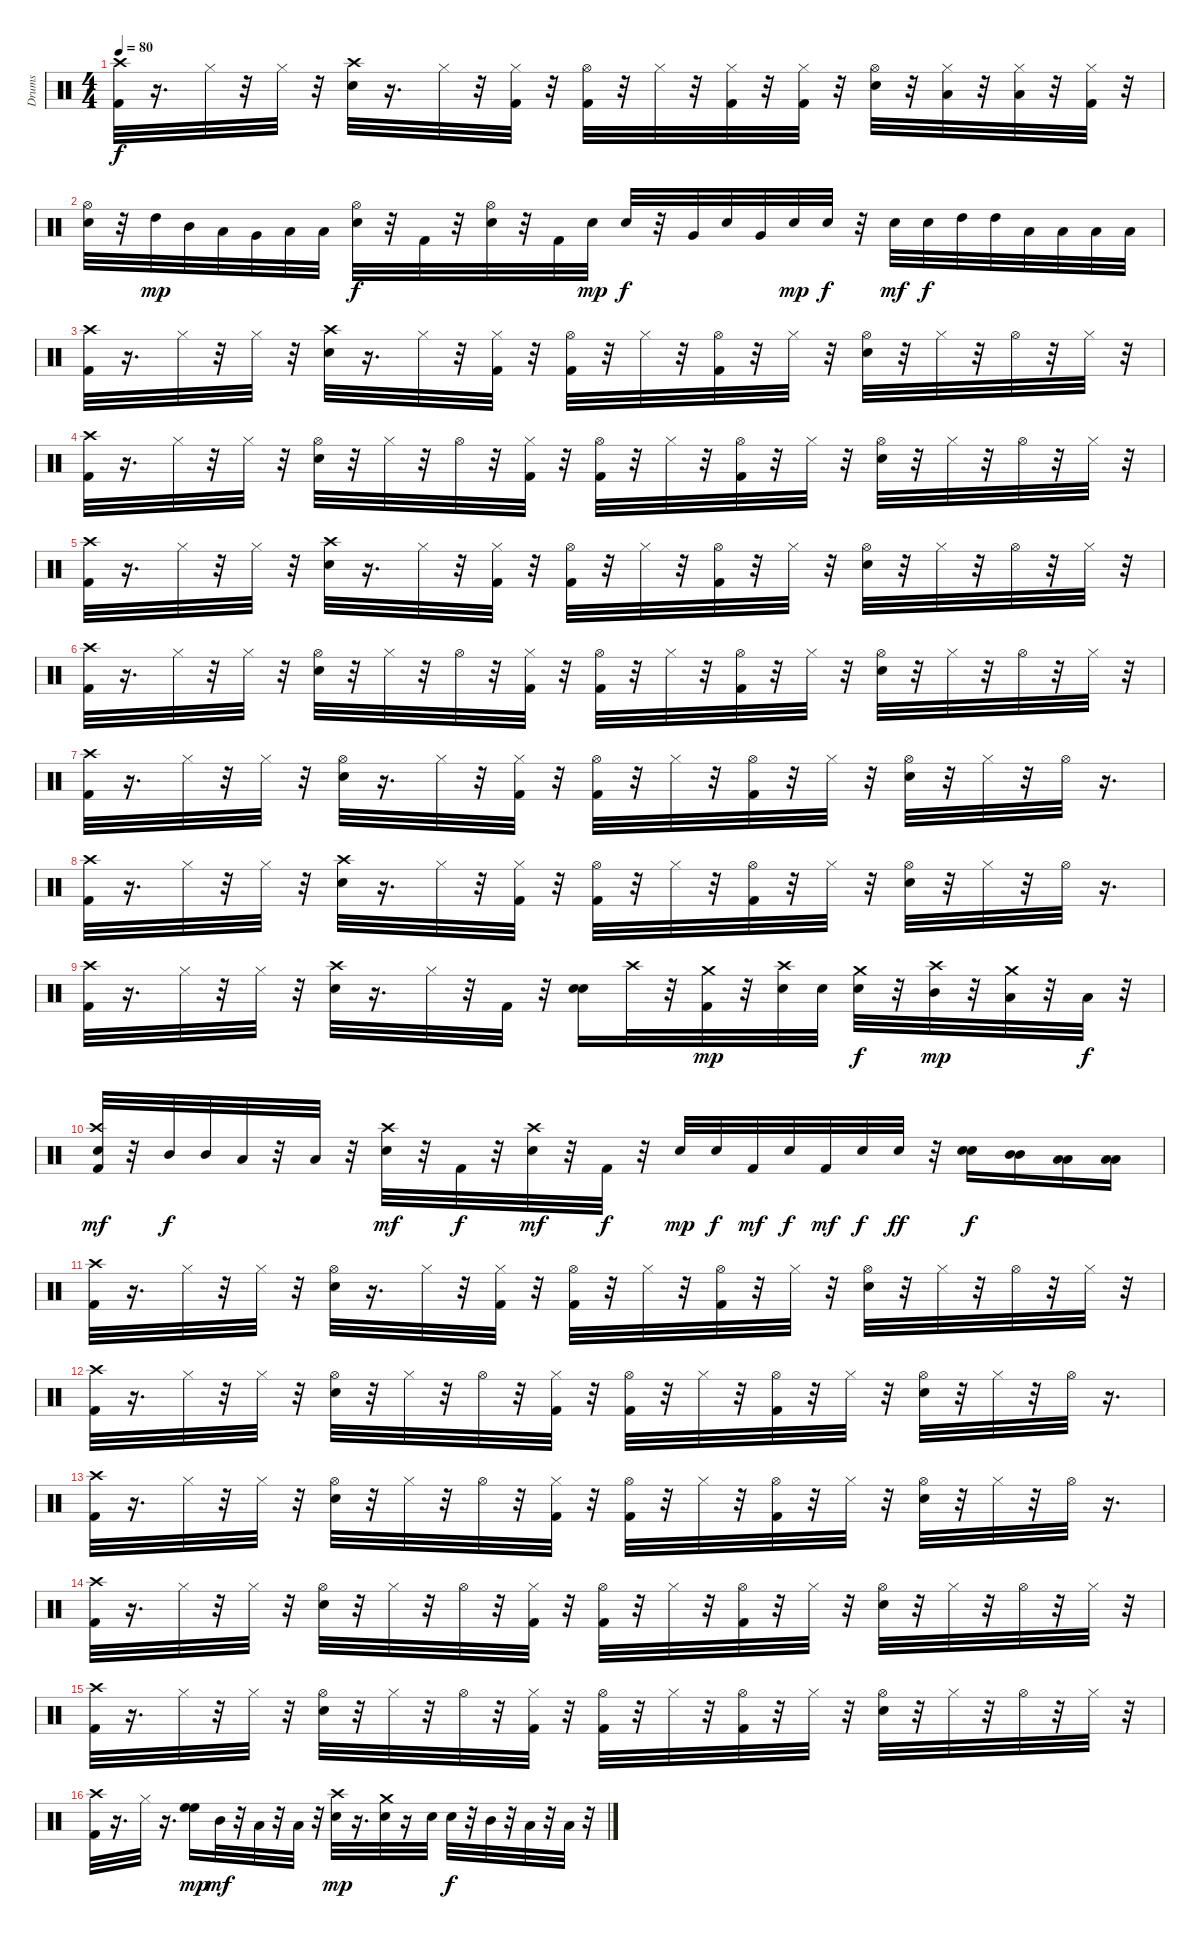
\track ("Drums" "Drums") {instrument percussion}
\staff {score}
\articulation defaults
\ts (4 4)
\tempo 80
\clef neutral
\ks c
("Kick (hit) 2" "Crash high (hit)").32{dy f} r.16{d} "Hi-Hat (closed)".32 r.32 "Hi-Hat (closed)".32 r.32 ("Snare (hit) 2" "Crash high (hit)").32 r.16{d} "Hi-Hat (closed)".32 r.32 ("Kick (hit) 2" "Hi-Hat (closed)").32 r.32 ("Kick (hit) 2" "Hi-Hat (open)").32 r.32 "Hi-Hat (closed)".32 r.32 ("Hi-Hat (closed)" "Kick (hit) 2").32 r.32 ("Kick (hit) 2" "Hi-Hat (closed)").32 r.32 ("Snare (hit) 2" "Hi-Hat (open)").32 r.32 ("Low Tom (hit)" "Hi-Hat (closed)").32 r.32 ("Low Floor Tom (hit)" "Hi-Hat (closed)").32 r.32 ("Kick (hit) 2" "Hi-Hat (closed)").32 r.32 |
("Hi-Hat (open)" "Snare (hit) 2").32 r.32 "High Tom (hit)".32{dy mp} "Mid Tom (hit)".32 "Low Tom (hit)".32 "Very Low Tom (hit)".32 "Low Floor Tom (hit)".32 "Low Floor Tom (hit)".32 ("Hi-Hat (open)" "Snare (hit) 2").32{dy f} r.32 "Kick (hit) 2".32 r.32 ("Hi-Hat (open)" "Snare (hit) 2").32 r.32 "Kick (hit) 2".32 "Snare (hit) 2".32{dy mp} "Snare (hit) 2".32{dy f} r.32 "Very Low Tom (hit)".32 "Snare (hit) 2".32 "Very Low Tom (hit)".32 "Snare (hit) 2".32{dy mp} "Snare (hit) 2".32{dy f} r.32 "Snare (hit) 2".32{dy mf} "Snare (hit) 2".32{dy f} "High Tom (hit)".32 "High Tom (hit)".32 "Low Tom (hit)".32 "Low Tom (hit)".32 "Low Floor Tom (hit)".32 "Low Floor Tom (hit)".32 |
("Kick (hit) 2" "Crash high (hit)").32 r.16{d} "Hi-Hat (closed)".32 r.32 "Hi-Hat (closed)".32 r.32 ("Snare (hit) 2" "Crash high (hit)").32 r.16{d} "Hi-Hat (closed)".32 r.32 ("Kick (hit) 2" "Hi-Hat (closed)").32 r.32 ("Kick (hit) 2" "Hi-Hat (open)").32 r.32 "Hi-Hat (closed)".32 r.32 ("Hi-Hat (open)" "Kick (hit) 2").32 r.32 "Hi-Hat (closed)".32 r.32 ("Snare (hit) 2" "Hi-Hat (open)").32 r.32 "Hi-Hat (closed)".32 r.32 "Hi-Hat (open)".32 r.32 "Hi-Hat (closed)".32 r.32 |
("Kick (hit) 2" "Crash high (hit)").32 r.16{d} "Hi-Hat (closed)".32 r.32 "Hi-Hat (closed)".32 r.32 ("Snare (hit) 2" "Hi-Hat (open)").32 r.32 "Hi-Hat (closed)".32 r.32 "Hi-Hat (open)".32 r.32 ("Kick (hit) 2" "Hi-Hat (closed)").32 r.32 ("Kick (hit) 2" "Hi-Hat (open)").32 r.32 "Hi-Hat (closed)".32 r.32 ("Hi-Hat (open)" "Kick (hit) 2").32 r.32 "Hi-Hat (closed)".32 r.32 ("Snare (hit) 2" "Hi-Hat (open)").32 r.32 "Hi-Hat (closed)".32 r.32 "Hi-Hat (open)".32 r.32 "Hi-Hat (closed)".32 r.32 |
("Kick (hit) 2" "Crash high (hit)").32 r.16{d} "Hi-Hat (closed)".32 r.32 "Hi-Hat (closed)".32 r.32 ("Snare (hit) 2" "Crash high (hit)").32 r.16{d} "Hi-Hat (closed)".32 r.32 ("Kick (hit) 2" "Hi-Hat (closed)").32 r.32 ("Kick (hit) 2" "Hi-Hat (open)").32 r.32 "Hi-Hat (closed)".32 r.32 ("Hi-Hat (open)" "Kick (hit) 2").32 r.32 "Hi-Hat (closed)".32 r.32 ("Snare (hit) 2" "Hi-Hat (open)").32 r.32 "Hi-Hat (closed)".32 r.32 "Hi-Hat (open)".32 r.32 "Hi-Hat (closed)".32 r.32 |
("Kick (hit) 2" "Crash high (hit)").32 r.16{d} "Hi-Hat (closed)".32 r.32 "Hi-Hat (closed)".32 r.32 ("Snare (hit) 2" "Hi-Hat (open)").32 r.32 "Hi-Hat (closed)".32 r.32 "Hi-Hat (open)".32 r.32 ("Kick (hit) 2" "Hi-Hat (closed)").32 r.32 ("Kick (hit) 2" "Hi-Hat (open)").32 r.32 "Hi-Hat (closed)".32 r.32 ("Hi-Hat (open)" "Kick (hit) 2").32 r.32 "Hi-Hat (closed)".32 r.32 ("Snare (hit) 2" "Hi-Hat (open)").32 r.32 "Hi-Hat (closed)".32 r.32 "Hi-Hat (open)".32 r.32 "Hi-Hat (closed)".32 r.32 |
("Kick (hit) 2" "Crash high (hit)").32 r.16{d} "Hi-Hat (closed)".32 r.32 "Hi-Hat (closed)".32 r.32 ("Snare (hit) 2" "Hi-Hat (open)").32 r.16{d} "Hi-Hat (closed)".32 r.32 ("Kick (hit) 2" "Hi-Hat (closed)").32 r.32 ("Kick (hit) 2" "Hi-Hat (open)").32 r.32 "Hi-Hat (closed)".32 r.32 ("Hi-Hat (open)" "Kick (hit) 2").32 r.32 "Hi-Hat (closed)".32 r.32 ("Snare (hit) 2" "Hi-Hat (open)").32 r.32 "Hi-Hat (closed)".32 r.32 "Hi-Hat (open)".32 r.16{d} |
("Kick (hit) 2" "Crash high (hit)").32 r.16{d} "Hi-Hat (closed)".32 r.32 "Hi-Hat (closed)".32 r.32 ("Snare (hit) 2" "Crash high (hit)").32 r.16{d} "Hi-Hat (closed)".32 r.32 ("Kick (hit) 2" "Hi-Hat (closed)").32 r.32 ("Kick (hit) 2" "Hi-Hat (open)").32 r.32 "Hi-Hat (closed)".32 r.32 ("Hi-Hat (open)" "Kick (hit) 2").32 r.32 "Hi-Hat (closed)".32 r.32 ("Snare (hit) 2" "Hi-Hat (open)").32 r.32 "Hi-Hat (closed)".32 r.32 "Hi-Hat (open)".32 r.16{d} |
("Kick (hit) 2" "Crash high (hit)").32 r.16{d} "Hi-Hat (closed)".32 r.32 "Hi-Hat (closed)".32 r.32 ("Snare (hit) 2" "Crash high (hit)").32 r.16{d} "Hi-Hat (closed)".32 r.32 "Kick (hit) 2".32 r.32 ("Snare (hit) 2" "Snare (hit) 2").16 "Crash high (hit)".32 r.32 ("Kick (hit) 2" "Crash medium (hit)").32{dy mp} r.32 ("Snare (hit) 2" "Crash high (hit)").32 "Snare (hit) 2".32 ("Snare (hit) 2" "Crash medium (hit)").32{dy f} r.32 ("Mid Tom (hit)" "Crash high (hit)").32{dy mp} r.32 ("Low Tom (hit)" "Crash medium (hit)").32 r.32 "Low Floor Tom (hit)".32{dy f} r.32 |
("Kick (hit) 2" "Crash high (hit)" "Snare (hit) 2").32{dy mf} r.32 "Mid Tom (hit)".32{dy f} "Mid Tom (hit)".32 "Low Tom (hit)".32 r.32 "Low Floor Tom (hit)".32 r.32 ("Crash high (hit)" "Snare (hit) 2").32{dy mf} r.32 "Kick (hit) 2".32{dy f} r.32 ("Crash high (hit)" "Snare (hit) 2").32{dy mf} r.32 "Kick (hit) 2".32{dy f} r.32 "Snare (hit) 2".32{dy mp} "Snare (hit) 2".32{dy f} "Kick (hit) 2".32{dy mf} "Snare (hit) 2".32{dy f} "Kick (hit) 2".32{dy mf} "Snare (hit) 2".32{dy f} "Snare (hit) 2".32{dy ff} r.32 ("Snare (hit) 2" "Snare (hit) 2").16{dy f} ("Mid Tom (hit)" "Mid Tom (hit)").16 ("Low Tom (hit)" "Low Tom (hit)").16 ("Low Floor Tom (hit)" "Low Floor Tom (hit)").16 |
("Kick (hit) 2" "Crash high (hit)").32 r.16{d} "Hi-Hat (closed)".32 r.32 "Hi-Hat (closed)".32 r.32 ("Snare (hit) 2" "Hi-Hat (open)").32 r.16{d} "Hi-Hat (closed)".32 r.32 ("Kick (hit) 2" "Hi-Hat (closed)").32 r.32 ("Kick (hit) 2" "Hi-Hat (open)").32 r.32 "Hi-Hat (closed)".32 r.32 ("Hi-Hat (open)" "Kick (hit) 2").32 r.32 "Hi-Hat (closed)".32 r.32 ("Snare (hit) 2" "Hi-Hat (open)").32 r.32 "Hi-Hat (closed)".32 r.32 "Hi-Hat (open)".32 r.32 "Hi-Hat (closed)".32 r.32 |
("Kick (hit) 2" "Crash high (hit)").32 r.16{d} "Hi-Hat (closed)".32 r.32 "Hi-Hat (closed)".32 r.32 ("Snare (hit) 2" "Hi-Hat (open)").32 r.32 "Hi-Hat (closed)".32 r.32 "Hi-Hat (open)".32 r.32 ("Kick (hit) 2" "Hi-Hat (closed)").32 r.32 ("Kick (hit) 2" "Hi-Hat (open)").32 r.32 "Hi-Hat (closed)".32 r.32 ("Hi-Hat (open)" "Kick (hit) 2").32 r.32 "Hi-Hat (closed)".32 r.32 ("Snare (hit) 2" "Hi-Hat (open)").32 r.32 "Hi-Hat (closed)".32 r.32 "Hi-Hat (open)".32 r.16{d} |
("Kick (hit) 2" "Crash high (hit)").32 r.16{d} "Hi-Hat (closed)".32 r.32 "Hi-Hat (closed)".32 r.32 ("Snare (hit) 2" "Hi-Hat (open)").32 r.32 "Hi-Hat (closed)".32 r.32 "Hi-Hat (open)".32 r.32 ("Kick (hit) 2" "Hi-Hat (closed)").32 r.32 ("Kick (hit) 2" "Hi-Hat (open)").32 r.32 "Hi-Hat (closed)".32 r.32 ("Hi-Hat (open)" "Kick (hit) 2").32 r.32 "Hi-Hat (closed)".32 r.32 ("Snare (hit) 2" "Hi-Hat (open)").32 r.32 "Hi-Hat (closed)".32 r.32 "Hi-Hat (open)".32 r.16{d} |
("Kick (hit) 2" "Crash high (hit)").32 r.16{d} "Hi-Hat (closed)".32 r.32 "Hi-Hat (closed)".32 r.32 ("Snare (hit) 2" "Hi-Hat (open)").32 r.32 "Hi-Hat (closed)".32 r.32 "Hi-Hat (open)".32 r.32 ("Kick (hit) 2" "Hi-Hat (closed)").32 r.32 ("Kick (hit) 2" "Hi-Hat (open)").32 r.32 "Hi-Hat (closed)".32 r.32 ("Hi-Hat (open)" "Kick (hit) 2").32 r.32 "Hi-Hat (closed)".32 r.32 ("Snare (hit) 2" "Hi-Hat (open)").32 r.32 "Hi-Hat (closed)".32 r.32 "Hi-Hat (open)".32 r.32 "Hi-Hat (closed)".32 r.32 |
("Kick (hit) 2" "Crash high (hit)").32 r.16{d} "Hi-Hat (closed)".32 r.32 "Hi-Hat (closed)".32 r.32 ("Snare (hit) 2" "Hi-Hat (open)").32 r.32 "Hi-Hat (closed)".32 r.32 "Hi-Hat (open)".32 r.32 ("Kick (hit) 2" "Hi-Hat (closed)").32 r.32 ("Kick (hit) 2" "Hi-Hat (open)").32 r.32 "Hi-Hat (closed)".32 r.32 ("Hi-Hat (open)" "Kick (hit) 2").32 r.32 "Hi-Hat (closed)".32 r.32 ("Snare (hit) 2" "Hi-Hat (open)").32 r.32 "Hi-Hat (closed)".32 r.32 "Hi-Hat (open)".32 r.32 "Hi-Hat (closed)".32 r.32 |
("Kick (hit) 2" "Crash high (hit)").32 r.16{d} "Hi-Hat (closed)".32 r.16{d} ("High Floor Tom (hit)" "High Floor Tom (hit)").16{dy mp} "Mid Tom (hit)".32{dy mf} r.32 "Low Tom (hit)".32 r.32 "Low Floor Tom (hit)".32 r.32 ("Crash high (hit)" "Snare (hit) 2").32{dy mp} r.16{d} ("Crash medium (hit)" "Snare (hit) 2").32 r.16 "Snare (hit) 2".32 "Snare (hit) 2".32{dy f} r.32 "Mid Tom (hit)".32 r.32 "Low Tom (hit)".32 r.32 "Low Floor Tom (hit)".32 r.32
